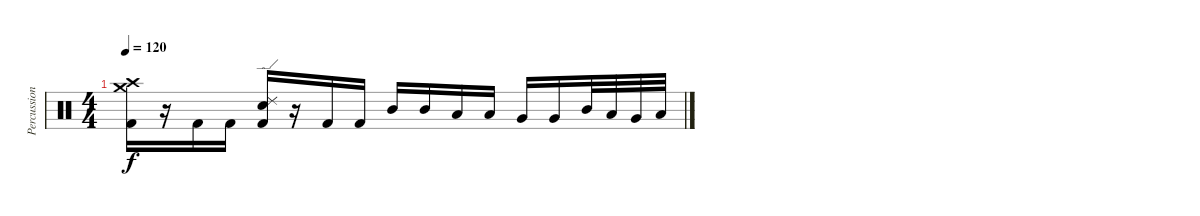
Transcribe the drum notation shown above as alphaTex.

\track ("Percussion" "Percussion") {instrument percussion}
\staff {score}
\articulation defaults
\ts (4 4)
\tempo 120
\clef neutral
\ks c
("Crash high (hit)" "Crash medium (hit)" "Kick (hit) 2").16{dy f} r.16 "Kick (hit) 2".16 "Kick (hit) 2".16 ("Ride (edge) 2" "Electric Snare (hit)" "Kick (hit) 2").16 r.16 "Kick (hit) 2".16 "Kick (hit) 2".16 "Mid Tom (hit)".16 "Mid Tom (hit)".16 "Low Tom (hit)".16 "Low Tom (hit)".16 "Very Low Tom (hit)".16 "Very Low Tom (hit)".16 "Mid Tom (hit)".32 "Low Tom (hit)".32 "Very Low Tom (hit)".32 "Low Floor Tom (hit)".32
